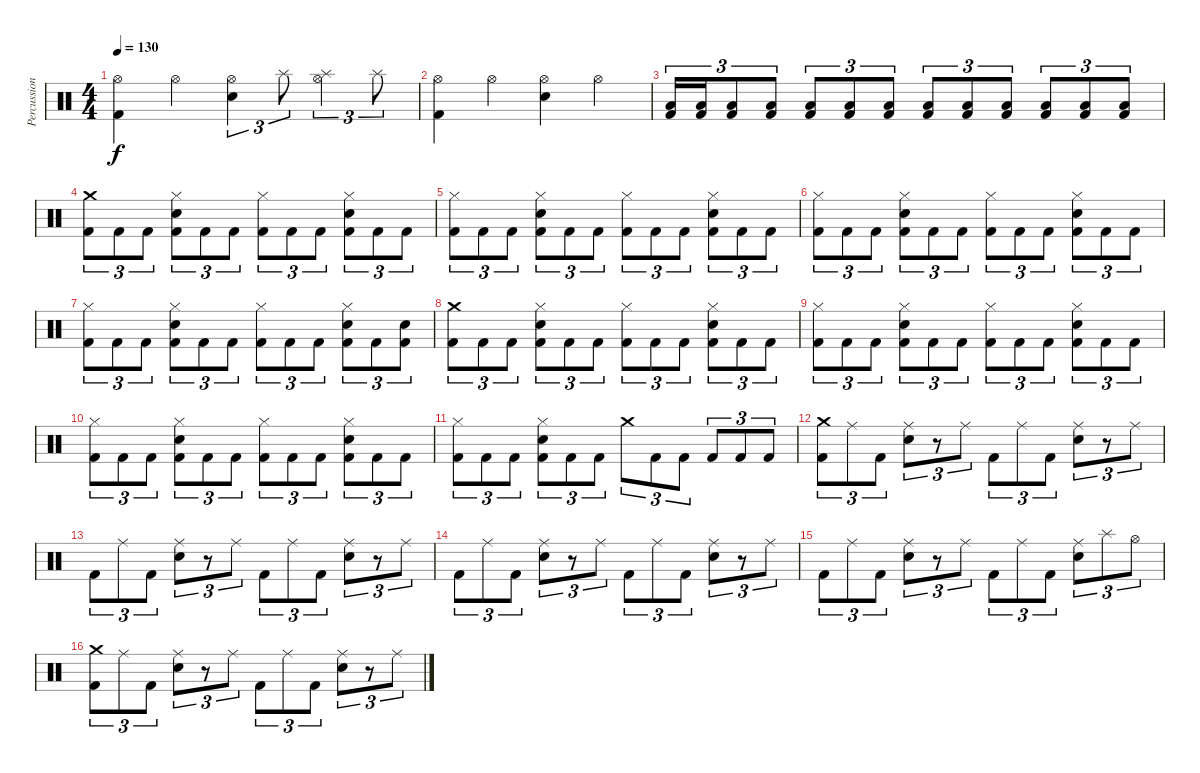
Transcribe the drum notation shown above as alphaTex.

\track ("Percussions" "Percussion") {instrument percussion}
\staff {score}
\articulation defaults
\ts (4 4)
\tempo 130
\clef neutral
\ks c
("Hi-Hat (open)" "Kick (hit) 2").4{dy f} "Hi-Hat (open)".4 ("Hi-Hat (open)" "Electric Snare (hit)").4{tu (3 2)} "Splash (hit)".8{tu (3 2)} ("Hi-Hat (open)" "Splash (hit)").4{tu (3 2)} "Splash (hit)".8{tu (3 2)} |
("Hi-Hat (open)" "Kick (hit) 2").4 "Hi-Hat (open)".4 ("Hi-Hat (open)" "Electric Snare (hit)").4 "Hi-Hat (open)".4 |
("Low Tom (hit)" "Kick (hit) 2").16{tu (3 2)} ("Low Tom (hit)" "Kick (hit) 2").16{tu (3 2)} ("Low Tom (hit)" "Kick (hit) 2").8{tu (3 2)} ("Low Tom (hit)" "Kick (hit) 2").8{tu (3 2)} ("Low Tom (hit)" "Kick (hit) 2").8{tu (3 2)} ("Low Tom (hit)" "Kick (hit) 2").8{tu (3 2)} ("Low Tom (hit)" "Kick (hit) 2").8{tu (3 2)} ("Low Tom (hit)" "Kick (hit) 2").8{tu (3 2)} ("Low Tom (hit)" "Kick (hit) 2").8{tu (3 2)} ("Low Tom (hit)" "Kick (hit) 2").8{tu (3 2)} ("Low Tom (hit)" "Kick (hit) 2").8{tu (3 2)} ("Low Tom (hit)" "Kick (hit) 2").8{tu (3 2)} ("Low Tom (hit)" "Kick (hit) 2").8{tu (3 2)} |
("Crash medium (hit)" "Kick (hit) 2").8{tu (3 2)} "Kick (hit) 2".8{tu (3 2)} "Kick (hit) 2".8{tu (3 2)} ("Hi-Hat (closed)" "Electric Snare (hit)" "Kick (hit) 2").8{tu (3 2)} "Kick (hit) 2".8{tu (3 2)} "Kick (hit) 2".8{tu (3 2)} ("Hi-Hat (closed)" "Kick (hit) 2").8{tu (3 2)} "Kick (hit) 2".8{tu (3 2)} "Kick (hit) 2".8{tu (3 2)} ("Hi-Hat (closed)" "Electric Snare (hit)" "Kick (hit) 2").8{tu (3 2)} "Kick (hit) 2".8{tu (3 2)} "Kick (hit) 2".8{tu (3 2)} |
("Hi-Hat (closed)" "Kick (hit) 2").8{tu (3 2)} "Kick (hit) 2".8{tu (3 2)} "Kick (hit) 2".8{tu (3 2)} ("Hi-Hat (closed)" "Electric Snare (hit)" "Kick (hit) 2").8{tu (3 2)} "Kick (hit) 2".8{tu (3 2)} "Kick (hit) 2".8{tu (3 2)} ("Hi-Hat (closed)" "Kick (hit) 2").8{tu (3 2)} "Kick (hit) 2".8{tu (3 2)} "Kick (hit) 2".8{tu (3 2)} ("Hi-Hat (closed)" "Electric Snare (hit)" "Kick (hit) 2").8{tu (3 2)} "Kick (hit) 2".8{tu (3 2)} "Kick (hit) 2".8{tu (3 2)} |
("Hi-Hat (closed)" "Kick (hit) 2").8{tu (3 2)} "Kick (hit) 2".8{tu (3 2)} "Kick (hit) 2".8{tu (3 2)} ("Hi-Hat (closed)" "Electric Snare (hit)" "Kick (hit) 2").8{tu (3 2)} "Kick (hit) 2".8{tu (3 2)} "Kick (hit) 2".8{tu (3 2)} ("Hi-Hat (closed)" "Kick (hit) 2").8{tu (3 2)} "Kick (hit) 2".8{tu (3 2)} "Kick (hit) 2".8{tu (3 2)} ("Hi-Hat (closed)" "Electric Snare (hit)" "Kick (hit) 2").8{tu (3 2)} "Kick (hit) 2".8{tu (3 2)} "Kick (hit) 2".8{tu (3 2)} |
("Hi-Hat (closed)" "Kick (hit) 2").8{tu (3 2)} "Kick (hit) 2".8{tu (3 2)} "Kick (hit) 2".8{tu (3 2)} ("Hi-Hat (closed)" "Electric Snare (hit)" "Kick (hit) 2").8{tu (3 2)} "Kick (hit) 2".8{tu (3 2)} "Kick (hit) 2".8{tu (3 2)} ("Hi-Hat (closed)" "Kick (hit) 2").8{tu (3 2)} "Kick (hit) 2".8{tu (3 2)} "Kick (hit) 2".8{tu (3 2)} ("Hi-Hat (closed)" "Electric Snare (hit)" "Kick (hit) 2").8{tu (3 2)} "Kick (hit) 2".8{tu (3 2)} ("Electric Snare (hit)" "Kick (hit) 2").8{tu (3 2)} |
("Crash medium (hit)" "Kick (hit) 2").8{tu (3 2)} "Kick (hit) 2".8{tu (3 2)} "Kick (hit) 2".8{tu (3 2)} ("Hi-Hat (closed)" "Electric Snare (hit)" "Kick (hit) 2").8{tu (3 2)} "Kick (hit) 2".8{tu (3 2)} "Kick (hit) 2".8{tu (3 2)} ("Hi-Hat (closed)" "Kick (hit) 2").8{tu (3 2)} "Kick (hit) 2".8{tu (3 2)} "Kick (hit) 2".8{tu (3 2)} ("Hi-Hat (closed)" "Electric Snare (hit)" "Kick (hit) 2").8{tu (3 2)} "Kick (hit) 2".8{tu (3 2)} "Kick (hit) 2".8{tu (3 2)} |
("Hi-Hat (closed)" "Kick (hit) 2").8{tu (3 2)} "Kick (hit) 2".8{tu (3 2)} "Kick (hit) 2".8{tu (3 2)} ("Hi-Hat (closed)" "Electric Snare (hit)" "Kick (hit) 2").8{tu (3 2)} "Kick (hit) 2".8{tu (3 2)} "Kick (hit) 2".8{tu (3 2)} ("Hi-Hat (closed)" "Kick (hit) 2").8{tu (3 2)} "Kick (hit) 2".8{tu (3 2)} "Kick (hit) 2".8{tu (3 2)} ("Hi-Hat (closed)" "Electric Snare (hit)" "Kick (hit) 2").8{tu (3 2)} "Kick (hit) 2".8{tu (3 2)} "Kick (hit) 2".8{tu (3 2)} |
("Hi-Hat (closed)" "Kick (hit) 2").8{tu (3 2)} "Kick (hit) 2".8{tu (3 2)} "Kick (hit) 2".8{tu (3 2)} ("Hi-Hat (closed)" "Electric Snare (hit)" "Kick (hit) 2").8{tu (3 2)} "Kick (hit) 2".8{tu (3 2)} "Kick (hit) 2".8{tu (3 2)} ("Hi-Hat (closed)" "Kick (hit) 2").8{tu (3 2)} "Kick (hit) 2".8{tu (3 2)} "Kick (hit) 2".8{tu (3 2)} ("Hi-Hat (closed)" "Electric Snare (hit)" "Kick (hit) 2").8{tu (3 2)} "Kick (hit) 2".8{tu (3 2)} "Kick (hit) 2".8{tu (3 2)} |
("Hi-Hat (closed)" "Kick (hit) 2").8{tu (3 2)} "Kick (hit) 2".8{tu (3 2)} "Kick (hit) 2".8{tu (3 2)} ("Hi-Hat (closed)" "Electric Snare (hit)" "Kick (hit) 2").8{tu (3 2)} "Kick (hit) 2".8{tu (3 2)} "Kick (hit) 2".8{tu (3 2)} "Crash medium (hit)".8{tu (3 2)} "Kick (hit) 2".8{tu (3 2)} "Kick (hit) 2".8{tu (3 2)} "Kick (hit) 2".8{tu (3 2)} "Kick (hit) 2".8{tu (3 2)} "Kick (hit) 2".8{tu (3 2)} |
("Crash medium (hit)" "Kick (hit) 2").8{tu (3 2)} "Ride (middle)".8{tu (3 2)} "Kick (hit) 2".8{tu (3 2)} ("Ride (middle)" "Electric Snare (hit)").8{tu (3 2)} r.8{tu (3 2)} "Ride (middle)".8{tu (3 2)} "Kick (hit) 2".8{tu (3 2)} "Ride (middle)".8{tu (3 2)} "Kick (hit) 2".8{tu (3 2)} ("Ride (middle)" "Electric Snare (hit)").8{tu (3 2)} r.8{tu (3 2)} "Ride (middle)".8{tu (3 2)} |
"Kick (hit) 2".8{tu (3 2)} "Ride (middle)".8{tu (3 2)} "Kick (hit) 2".8{tu (3 2)} ("Ride (middle)" "Electric Snare (hit)").8{tu (3 2)} r.8{tu (3 2)} "Ride (middle)".8{tu (3 2)} "Kick (hit) 2".8{tu (3 2)} "Ride (middle)".8{tu (3 2)} "Kick (hit) 2".8{tu (3 2)} ("Ride (middle)" "Electric Snare (hit)").8{tu (3 2)} r.8{tu (3 2)} "Ride (middle)".8{tu (3 2)} |
"Kick (hit) 2".8{tu (3 2)} "Ride (middle)".8{tu (3 2)} "Kick (hit) 2".8{tu (3 2)} ("Ride (middle)" "Electric Snare (hit)").8{tu (3 2)} r.8{tu (3 2)} "Ride (middle)".8{tu (3 2)} "Kick (hit) 2".8{tu (3 2)} "Ride (middle)".8{tu (3 2)} "Kick (hit) 2".8{tu (3 2)} ("Ride (middle)" "Electric Snare (hit)").8{tu (3 2)} r.8{tu (3 2)} "Ride (middle)".8{tu (3 2)} |
"Kick (hit) 2".8{tu (3 2)} "Ride (middle)".8{tu (3 2)} "Kick (hit) 2".8{tu (3 2)} ("Ride (middle)" "Electric Snare (hit)").8{tu (3 2)} r.8{tu (3 2)} "Ride (middle)".8{tu (3 2)} "Kick (hit) 2".8{tu (3 2)} "Ride (middle)".8{tu (3 2)} "Kick (hit) 2".8{tu (3 2)} ("Ride (middle)" "Electric Snare (hit)").8{tu (3 2)} "Splash (hit)".8{tu (3 2)} "Hi-Hat (open)".8{tu (3 2)} |
("Crash medium (hit)" "Kick (hit) 2").8{tu (3 2)} "Ride (middle)".8{tu (3 2)} "Kick (hit) 2".8{tu (3 2)} ("Ride (middle)" "Electric Snare (hit)").8{tu (3 2)} r.8{tu (3 2)} "Ride (middle)".8{tu (3 2)} "Kick (hit) 2".8{tu (3 2)} "Ride (middle)".8{tu (3 2)} "Kick (hit) 2".8{tu (3 2)} ("Ride (middle)" "Electric Snare (hit)").8{tu (3 2)} r.8{tu (3 2)} "Ride (middle)".8{tu (3 2)}
